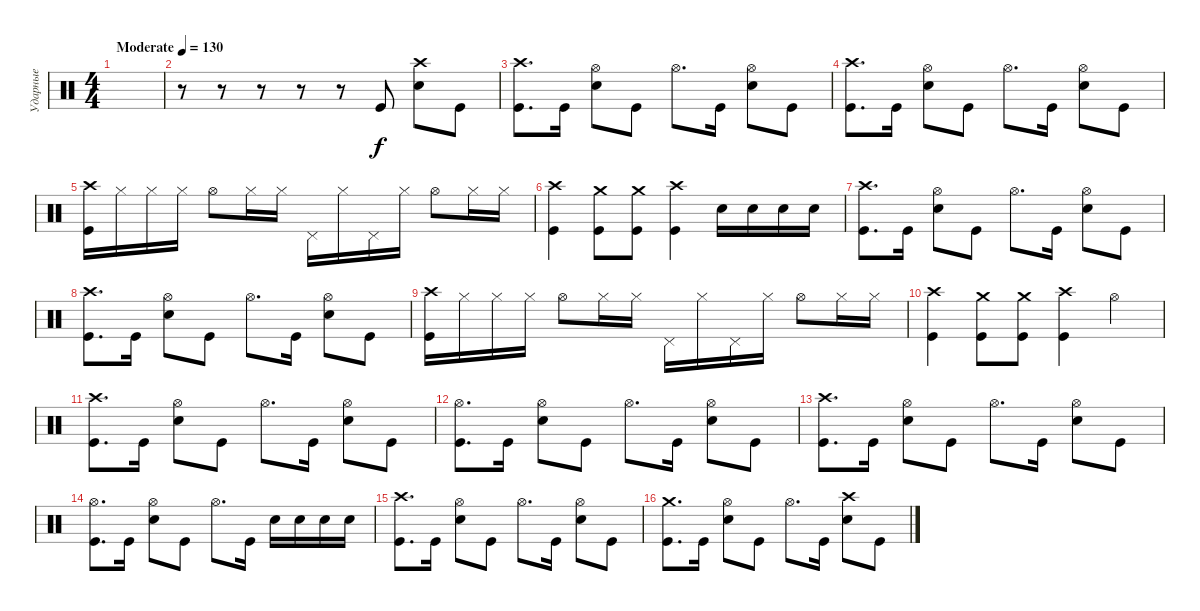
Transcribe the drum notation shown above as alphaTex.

\track ("Ударные" "Ударные") {instrument percussion}
\staff {score}
\articulation defaults
\ts (4 4)
\tempo (130 "Moderate")
\clef neutral
\ks c
|
r.8 r.8 r.8 r.8 r.8 "Kick (hit)".8 ("Snare (hit) 2" "Crash high (hit)").8 "Kick (hit)".8 |
("Kick (hit)" "Crash high (hit)").8{d} "Kick (hit)".16 ("Snare (hit) 2" "Hi-Hat (open)").8 "Kick (hit)".8 "Hi-Hat (open)".8{d} "Kick (hit)".16 ("Snare (hit) 2" "Hi-Hat (open)").8 "Kick (hit)".8 |
("Kick (hit)" "Crash high (hit)").8{d} "Kick (hit)".16 ("Snare (hit) 2" "Hi-Hat (open)").8 "Kick (hit)".8 "Hi-Hat (open)".8{d} "Kick (hit)".16 ("Snare (hit) 2" "Hi-Hat (open)").8 "Kick (hit)".8 |
("Kick (hit)" "Crash high (hit)").16 "Hi-Hat (closed)".16 "Hi-Hat (closed)".16 "Hi-Hat (closed)".16 "Hi-Hat (open)".8 "Hi-Hat (closed)".16 "Hi-Hat (closed)".16 "Pedal Hi-Hat (hit)".16 "Hi-Hat (closed)".16 "Pedal Hi-Hat (hit)".16 "Hi-Hat (closed)".16 "Hi-Hat (open)".8 "Hi-Hat (closed)".16 "Hi-Hat (closed)".16 |
("Kick (hit)" "Crash high (hit)").4 ("Crash medium (hit)" "Kick (hit)").8 ("Crash medium (hit)" "Kick (hit)").8 ("Crash high (hit)" "Kick (hit)").4 "Snare (hit) 2".16 "Snare (hit) 2".16 "Snare (hit) 2".16 "Snare (hit) 2".16 |
("Kick (hit)" "Crash high (hit)").8{d} "Kick (hit)".16 ("Snare (hit) 2" "Hi-Hat (open)").8 "Kick (hit)".8 "Hi-Hat (open)".8{d} "Kick (hit)".16 ("Snare (hit) 2" "Hi-Hat (open)").8 "Kick (hit)".8 |
("Kick (hit)" "Crash high (hit)").8{d} "Kick (hit)".16 ("Snare (hit) 2" "Hi-Hat (open)").8 "Kick (hit)".8 "Hi-Hat (open)".8{d} "Kick (hit)".16 ("Snare (hit) 2" "Hi-Hat (open)").8 "Kick (hit)".8 |
("Kick (hit)" "Crash high (hit)").16 "Hi-Hat (closed)".16 "Hi-Hat (closed)".16 "Hi-Hat (closed)".16 "Hi-Hat (open)".8 "Hi-Hat (closed)".16 "Hi-Hat (closed)".16 "Pedal Hi-Hat (hit)".16 "Hi-Hat (closed)".16 "Pedal Hi-Hat (hit)".16 "Hi-Hat (closed)".16 "Hi-Hat (open)".8 "Hi-Hat (closed)".16 "Hi-Hat (closed)".16 |
("Kick (hit)" "Crash high (hit)").4 ("Crash medium (hit)" "Kick (hit)").8 ("Crash medium (hit)" "Kick (hit)").8 ("Crash high (hit)" "Kick (hit)").4 "Hi-Hat (open)".4 |
("Kick (hit)" "Crash high (hit)").8{d} "Kick (hit)".16 ("Snare (hit) 2" "Hi-Hat (open)").8 "Kick (hit)".8 "Hi-Hat (open)".8{d} "Kick (hit)".16 ("Snare (hit) 2" "Hi-Hat (open)").8 "Kick (hit)".8 |
("Kick (hit)" "Hi-Hat (open)").8{d} "Kick (hit)".16 ("Snare (hit) 2" "Hi-Hat (open)").8 "Kick (hit)".8 "Hi-Hat (open)".8{d} "Kick (hit)".16 ("Snare (hit) 2" "Hi-Hat (open)").8 "Kick (hit)".8 |
("Kick (hit)" "Crash high (hit)").8{d} "Kick (hit)".16 ("Snare (hit) 2" "Hi-Hat (open)").8 "Kick (hit)".8 "Hi-Hat (open)".8{d} "Kick (hit)".16 ("Snare (hit) 2" "Hi-Hat (open)").8 "Kick (hit)".8 |
("Kick (hit)" "Hi-Hat (open)").8{d} "Kick (hit)".16 ("Snare (hit) 2" "Hi-Hat (open)").8 "Kick (hit)".8 "Hi-Hat (open)".8{d} "Kick (hit)".16 "Snare (hit) 2".16 "Snare (hit) 2".16 "Snare (hit) 2".16 "Snare (hit) 2".16 |
("Kick (hit)" "Crash high (hit)").8{d} "Kick (hit)".16 ("Snare (hit) 2" "Hi-Hat (open)").8 "Kick (hit)".8 "Hi-Hat (open)".8{d} "Kick (hit)".16 ("Snare (hit) 2" "Hi-Hat (open)").8 "Kick (hit)".8 |
("Kick (hit)" "Crash medium (hit)").8{d} "Kick (hit)".16 ("Snare (hit) 2" "Hi-Hat (open)").8 "Kick (hit)".8 "Hi-Hat (open)".8{d} "Kick (hit)".16 ("Snare (hit) 2" "Crash high (hit)").8 "Kick (hit)".8
